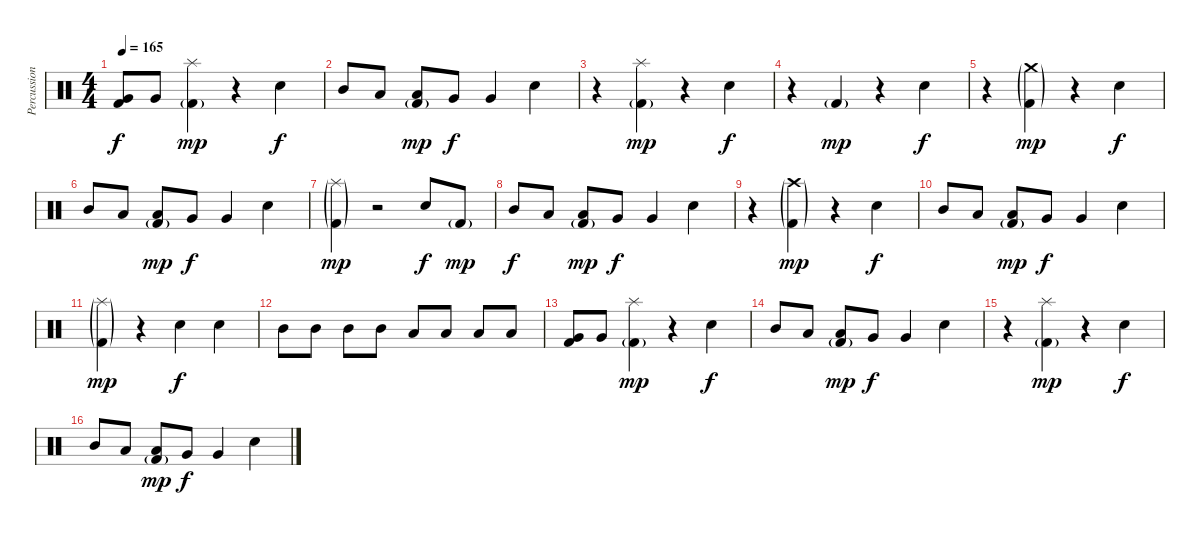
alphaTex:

\track ("Percussions" "Percussion") {instrument percussion}
\staff {score}
\articulation defaults
\ts (4 4)
\tempo 165
\clef neutral
\ks c
("Very Low Tom (hit)" "Kick (hit) 2").8{dy f} "Very Low Tom (hit)".8 ("Kick (hit) 2"{g} "Splash (hit)").4{dy mp} r.4 "Electric Snare (hit)".4{dy f} |
"Mid Tom (hit)".8 "Low Tom (hit)".8 ("Kick (hit) 2"{g} "Low Tom (hit)").8{dy mp} "Very Low Tom (hit)".8{dy f} "Very Low Tom (hit)".4 "Electric Snare (hit)".4 |
r.4 ("Kick (hit) 2"{g} "Splash (hit)").4{dy mp} r.4 "Electric Snare (hit)".4{dy f} |
r.4 "Kick (hit) 2"{g}.4{dy mp} r.4 "Electric Snare (hit)".4{dy f} |
r.4 ("Kick (hit) 2"{g} "Crash medium (hit)"{g}).4{dy mp} r.4 "Electric Snare (hit)".4{dy f} |
"Mid Tom (hit)".8 "Low Tom (hit)".8 ("Kick (hit) 2"{g} "Low Tom (hit)").8{dy mp} "Very Low Tom (hit)".8{dy f} "Very Low Tom (hit)".4 "Electric Snare (hit)".4 |
("Splash (hit)"{g} "Kick (hit) 2"{g}).4{dy mp} r.2 "Electric Snare (hit)".8{dy f} "Kick (hit) 2"{g}.8{dy mp} |
"Mid Tom (hit)".8{dy f} "Low Tom (hit)".8 ("Kick (hit) 2"{g} "Low Tom (hit)").8{dy mp} "Very Low Tom (hit)".8{dy f} "Very Low Tom (hit)".4 "Electric Snare (hit)".4 |
r.4 ("Kick (hit) 2"{g} "Crash high (hit)"{g}).4{dy mp} r.4 "Electric Snare (hit)".4{dy f} |
"Mid Tom (hit)".8 "Low Tom (hit)".8 ("Kick (hit) 2"{g} "Low Tom (hit)").8{dy mp} "Very Low Tom (hit)".8{dy f} "Very Low Tom (hit)".4 "Electric Snare (hit)".4 |
("Splash (hit)"{g} "Kick (hit) 2"{g}).4{dy mp} r.4 "Electric Snare (hit)".4{dy f} "Electric Snare (hit)".4 |
"Mid Tom (hit)".8 "Mid Tom (hit)".8 "Mid Tom (hit)".8 "Mid Tom (hit)".8 "Low Tom (hit)".8 "Low Tom (hit)".8 "Low Tom (hit)".8 "Low Tom (hit)".8 |
("Very Low Tom (hit)" "Kick (hit) 2").8 "Very Low Tom (hit)".8 ("Kick (hit) 2"{g} "Splash (hit)").4{dy mp} r.4 "Electric Snare (hit)".4{dy f} |
"Mid Tom (hit)".8 "Low Tom (hit)".8 ("Kick (hit) 2"{g} "Low Tom (hit)").8{dy mp} "Very Low Tom (hit)".8{dy f} "Very Low Tom (hit)".4 "Electric Snare (hit)".4 |
r.4 ("Kick (hit) 2"{g} "Splash (hit)").4{dy mp} r.4 "Electric Snare (hit)".4{dy f} |
"Mid Tom (hit)".8 "Low Tom (hit)".8 ("Kick (hit) 2"{g} "Low Tom (hit)").8{dy mp} "Very Low Tom (hit)".8{dy f} "Very Low Tom (hit)".4 "Electric Snare (hit)".4
